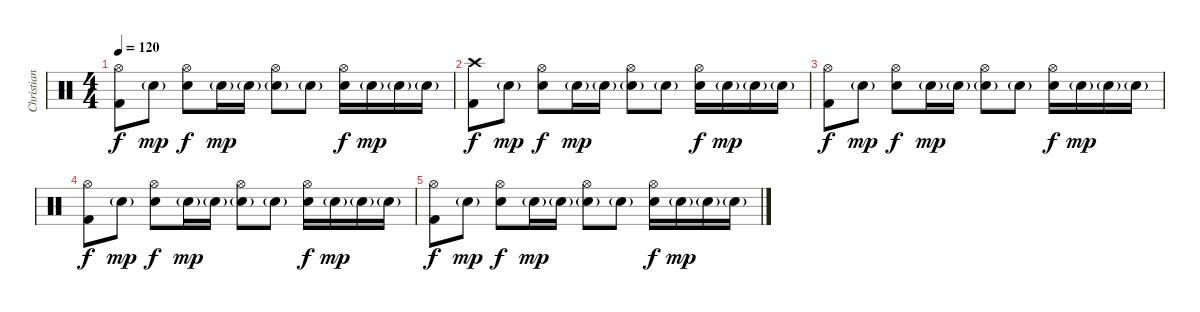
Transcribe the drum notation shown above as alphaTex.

\track ("Christian" "Christian") {instrument percussion}
\staff {score}
\articulation defaults
\ts (4 4)
\tempo 120
\clef neutral
\ks c
("Hi-Hat (open)" "Kick (hit) 2").8{dy f} "Snare (hit) 2"{g}.8{dy mp} ("Hi-Hat (open)" "Snare (hit) 2").8{dy f} "Snare (hit) 2"{g}.16{dy mp} "Snare (hit) 2"{g}.16 ("Hi-Hat (open)" "Snare (hit) 2"{g}).8 "Snare (hit) 2"{g}.8 ("Hi-Hat (open)" "Snare (hit) 2").16{dy f} "Snare (hit) 2"{g}.16{dy mp} "Snare (hit) 2"{g}.16 "Snare (hit) 2"{g}.16 |
("Crash high (hit)" "Kick (hit) 2").8{dy f volume 0} "Snare (hit) 2"{g}.8{dy mp} ("Hi-Hat (open)" "Snare (hit) 2").8{dy f} "Snare (hit) 2"{g}.16{dy mp} "Snare (hit) 2"{g}.16 ("Hi-Hat (open)" "Snare (hit) 2"{g}).8 "Snare (hit) 2"{g}.8 ("Hi-Hat (open)" "Snare (hit) 2").16{dy f} "Snare (hit) 2"{g}.16{dy mp} "Snare (hit) 2"{g}.16 "Snare (hit) 2"{g}.16 |
("Hi-Hat (open)" "Kick (hit) 2").8{dy f} "Snare (hit) 2"{g}.8{dy mp} ("Hi-Hat (open)" "Snare (hit) 2").8{dy f} "Snare (hit) 2"{g}.16{dy mp} "Snare (hit) 2"{g}.16 ("Hi-Hat (open)" "Snare (hit) 2"{g}).8 "Snare (hit) 2"{g}.8 ("Hi-Hat (open)" "Snare (hit) 2").16{dy f} "Snare (hit) 2"{g}.16{dy mp} "Snare (hit) 2"{g}.16 "Snare (hit) 2"{g}.16 |
("Hi-Hat (open)" "Kick (hit) 2").8{dy f} "Snare (hit) 2"{g}.8{dy mp} ("Hi-Hat (open)" "Snare (hit) 2").8{dy f} "Snare (hit) 2"{g}.16{dy mp} "Snare (hit) 2"{g}.16 ("Hi-Hat (open)" "Snare (hit) 2"{g}).8 "Snare (hit) 2"{g}.8 ("Hi-Hat (open)" "Snare (hit) 2").16{dy f} "Snare (hit) 2"{g}.16{dy mp} "Snare (hit) 2"{g}.16 "Snare (hit) 2"{g}.16 |
("Hi-Hat (open)" "Kick (hit) 2").8{dy f} "Snare (hit) 2"{g}.8{dy mp} ("Hi-Hat (open)" "Snare (hit) 2").8{dy f} "Snare (hit) 2"{g}.16{dy mp} "Snare (hit) 2"{g}.16 ("Hi-Hat (open)" "Snare (hit) 2"{g}).8 "Snare (hit) 2"{g}.8 ("Hi-Hat (open)" "Snare (hit) 2").16{dy f} "Snare (hit) 2"{g}.16{dy mp} "Snare (hit) 2"{g}.16 "Snare (hit) 2"{g}.16
